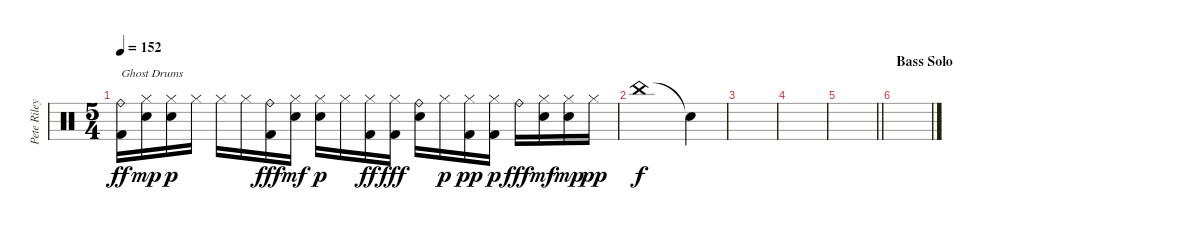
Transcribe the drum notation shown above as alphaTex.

\track ("Pete Riley" "Pete Riley") {instrument percussion}
\staff {score}
\articulation defaults
\ts (5 4)
\tempo 152
\clef neutral
\ks c
("Ride (bell)" "Kick (hit) 2").16{txt "Ghost Drums" dy ff} ("Hi-Hat (closed)" "Electric Snare (hit)").16{dy mp} ("Hi-Hat (closed)" "Electric Snare (hit)").16{dy p} "Hi-Hat (closed)".16 "Hi-Hat (closed)".16 "Hi-Hat (closed)".16 ("Ride (bell)" "Kick (hit) 2").16{dy fff} ("Hi-Hat (closed)" "Electric Snare (hit)").16{dy mf} ("Hi-Hat (closed)" "Electric Snare (hit)").16{dy p} "Hi-Hat (closed)".16 ("Hi-Hat (closed)" "Kick (hit) 2").16{dy ff} ("Hi-Hat (closed)" "Kick (hit) 2").16{dy fff} ("Ride (bell)" "Electric Snare (hit)").16 "Hi-Hat (closed)".16{dy p} ("Hi-Hat (closed)" "Kick (hit) 2").16{dy pp} ("Hi-Hat (closed)" "Kick (hit) 2").16{dy p} "Ride (bell)".16{dy fff} ("Hi-Hat (closed)" "Electric Snare (hit)").16{dy mf} ("Hi-Hat (closed)" "Electric Snare (hit)").16{dy mp} "Hi-Hat (closed)".16{dy pp} |
"China (hit)".1{dy f} "Snare (hit)"{t}.4 |
|
|
\barLineRight lightlight
|
\section ("" "Bass Solo")
